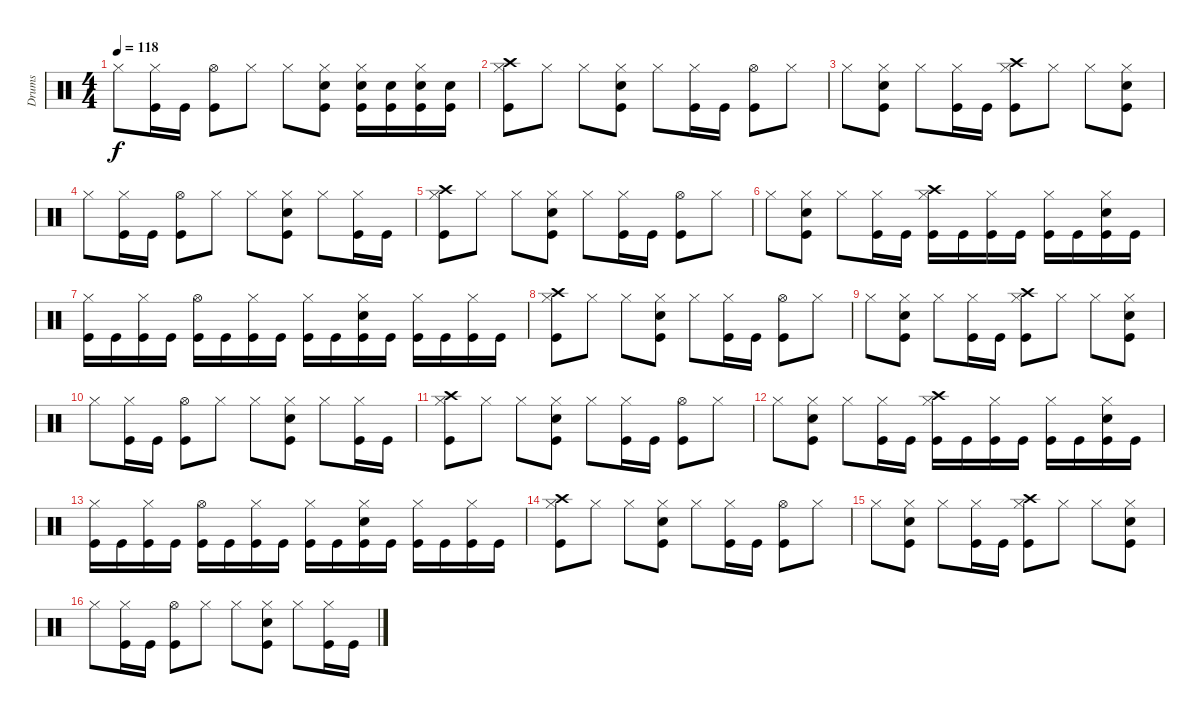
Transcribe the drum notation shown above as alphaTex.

\track ("Drums" "Drums") {instrument percussion}
\staff {score}
\articulation defaults
\ts (4 4)
\tempo 118
\clef neutral
\ks c "Hi-Hat (closed)".8{dy f}
("Kick (hit)" "Hi-Hat (closed)").16 "Kick (hit)".16 ("Kick (hit)" "Hi-Hat (open)").8 "Hi-Hat (closed)".8 "Hi-Hat (closed)".8 ("Kick (hit)" "Snare (hit) 2" "Hi-Hat (closed)").8 ("Kick (hit)" "Snare (hit) 2" "Hi-Hat (closed)").16 ("Kick (hit)" "Snare (hit) 2").16 ("Kick (hit)" "Snare (hit) 2" "Hi-Hat (closed)").16 ("Kick (hit)" "Snare (hit) 2").16 |
("Kick (hit)" "Hi-Hat (closed)" "Crash high (hit)").8 "Hi-Hat (closed)".8 "Hi-Hat (closed)".8 ("Kick (hit)" "Snare (hit) 2" "Hi-Hat (closed)").8 "Hi-Hat (closed)".8 ("Kick (hit)" "Hi-Hat (closed)").16 "Kick (hit)".16 ("Kick (hit)" "Hi-Hat (open)").8 "Hi-Hat (closed)".8 |
"Hi-Hat (closed)".8 ("Kick (hit)" "Snare (hit) 2" "Hi-Hat (closed)").8 "Hi-Hat (closed)".8 ("Kick (hit)" "Hi-Hat (closed)").16 "Kick (hit)".16 ("Kick (hit)" "Hi-Hat (closed)" "Crash high (hit)").8 "Hi-Hat (closed)".8 "Hi-Hat (closed)".8 ("Kick (hit)" "Snare (hit) 2" "Hi-Hat (closed)").8 |
"Hi-Hat (closed)".8 ("Kick (hit)" "Hi-Hat (closed)").16 "Kick (hit)".16 ("Kick (hit)" "Hi-Hat (open)").8 "Hi-Hat (closed)".8 "Hi-Hat (closed)".8 ("Kick (hit)" "Snare (hit) 2" "Hi-Hat (closed)").8 "Hi-Hat (closed)".8 ("Kick (hit)" "Hi-Hat (closed)").16 "Kick (hit)".16 |
("Kick (hit)" "Hi-Hat (closed)" "Crash high (hit)").8 "Hi-Hat (closed)".8 "Hi-Hat (closed)".8 ("Kick (hit)" "Snare (hit) 2" "Hi-Hat (closed)").8 "Hi-Hat (closed)".8 ("Kick (hit)" "Hi-Hat (closed)").16 "Kick (hit)".16 ("Kick (hit)" "Hi-Hat (open)").8 "Hi-Hat (closed)".8 |
"Hi-Hat (closed)".8 ("Kick (hit)" "Snare (hit) 2" "Hi-Hat (closed)").8 "Hi-Hat (closed)".8 ("Kick (hit)" "Hi-Hat (closed)").16 "Kick (hit)".16 ("Kick (hit)" "Hi-Hat (closed)" "Crash high (hit)").16 "Kick (hit)".16 ("Kick (hit)" "Hi-Hat (closed)").16 "Kick (hit)".16 ("Kick (hit)" "Hi-Hat (closed)").16 "Kick (hit)".16 ("Kick (hit)" "Snare (hit) 2" "Hi-Hat (closed)").16 "Kick (hit)".16 |
("Kick (hit)" "Hi-Hat (closed)").16 "Kick (hit)".16 ("Kick (hit)" "Hi-Hat (closed)").16 "Kick (hit)".16 ("Kick (hit)" "Hi-Hat (open)").16 "Kick (hit)".16 ("Kick (hit)" "Hi-Hat (closed)").16 "Kick (hit)".16 ("Kick (hit)" "Hi-Hat (closed)").16 "Kick (hit)".16 ("Kick (hit)" "Snare (hit) 2" "Hi-Hat (closed)").16 "Kick (hit)".16 ("Kick (hit)" "Hi-Hat (closed)").16 "Kick (hit)".16 ("Kick (hit)" "Hi-Hat (closed)").16 "Kick (hit)".16 |
("Kick (hit)" "Hi-Hat (closed)" "Crash high (hit)").8 "Hi-Hat (closed)".8 "Hi-Hat (closed)".8 ("Kick (hit)" "Snare (hit) 2" "Hi-Hat (closed)").8 "Hi-Hat (closed)".8 ("Kick (hit)" "Hi-Hat (closed)").16 "Kick (hit)".16 ("Kick (hit)" "Hi-Hat (open)").8 "Hi-Hat (closed)".8 |
"Hi-Hat (closed)".8 ("Kick (hit)" "Snare (hit) 2" "Hi-Hat (closed)").8 "Hi-Hat (closed)".8 ("Kick (hit)" "Hi-Hat (closed)").16 "Kick (hit)".16 ("Kick (hit)" "Hi-Hat (closed)" "Crash high (hit)").8 "Hi-Hat (closed)".8 "Hi-Hat (closed)".8 ("Kick (hit)" "Snare (hit) 2" "Hi-Hat (closed)").8 |
"Hi-Hat (closed)".8 ("Kick (hit)" "Hi-Hat (closed)").16 "Kick (hit)".16 ("Kick (hit)" "Hi-Hat (open)").8 "Hi-Hat (closed)".8 "Hi-Hat (closed)".8 ("Kick (hit)" "Snare (hit) 2" "Hi-Hat (closed)").8 "Hi-Hat (closed)".8 ("Kick (hit)" "Hi-Hat (closed)").16 "Kick (hit)".16 |
("Kick (hit)" "Hi-Hat (closed)" "Crash high (hit)").8 "Hi-Hat (closed)".8 "Hi-Hat (closed)".8 ("Kick (hit)" "Snare (hit) 2" "Hi-Hat (closed)").8 "Hi-Hat (closed)".8 ("Kick (hit)" "Hi-Hat (closed)").16 "Kick (hit)".16 ("Kick (hit)" "Hi-Hat (open)").8 "Hi-Hat (closed)".8 |
"Hi-Hat (closed)".8 ("Kick (hit)" "Snare (hit) 2" "Hi-Hat (closed)").8 "Hi-Hat (closed)".8 ("Kick (hit)" "Hi-Hat (closed)").16 "Kick (hit)".16 ("Kick (hit)" "Hi-Hat (closed)" "Crash high (hit)").16 "Kick (hit)".16 ("Kick (hit)" "Hi-Hat (closed)").16 "Kick (hit)".16 ("Kick (hit)" "Hi-Hat (closed)").16 "Kick (hit)".16 ("Kick (hit)" "Snare (hit) 2" "Hi-Hat (closed)").16 "Kick (hit)".16 |
("Kick (hit)" "Hi-Hat (closed)").16 "Kick (hit)".16 ("Kick (hit)" "Hi-Hat (closed)").16 "Kick (hit)".16 ("Kick (hit)" "Hi-Hat (open)").16 "Kick (hit)".16 ("Kick (hit)" "Hi-Hat (closed)").16 "Kick (hit)".16 ("Kick (hit)" "Hi-Hat (closed)").16 "Kick (hit)".16 ("Kick (hit)" "Snare (hit) 2" "Hi-Hat (closed)").16 "Kick (hit)".16 ("Kick (hit)" "Hi-Hat (closed)").16 "Kick (hit)".16 ("Kick (hit)" "Hi-Hat (closed)").16 "Kick (hit)".16 |
("Kick (hit)" "Hi-Hat (closed)" "Crash high (hit)").8 "Hi-Hat (closed)".8 "Hi-Hat (closed)".8 ("Kick (hit)" "Snare (hit) 2" "Hi-Hat (closed)").8 "Hi-Hat (closed)".8 ("Kick (hit)" "Hi-Hat (closed)").16 "Kick (hit)".16 ("Kick (hit)" "Hi-Hat (open)").8 "Hi-Hat (closed)".8 |
"Hi-Hat (closed)".8 ("Kick (hit)" "Snare (hit) 2" "Hi-Hat (closed)").8 "Hi-Hat (closed)".8 ("Kick (hit)" "Hi-Hat (closed)").16 "Kick (hit)".16 ("Kick (hit)" "Hi-Hat (closed)" "Crash high (hit)").8 "Hi-Hat (closed)".8 "Hi-Hat (closed)".8 ("Kick (hit)" "Snare (hit) 2" "Hi-Hat (closed)").8 |
"Hi-Hat (closed)".8 ("Kick (hit)" "Hi-Hat (closed)").16 "Kick (hit)".16 ("Kick (hit)" "Hi-Hat (open)").8 "Hi-Hat (closed)".8 "Hi-Hat (closed)".8 ("Kick (hit)" "Snare (hit) 2" "Hi-Hat (closed)").8 "Hi-Hat (closed)".8 ("Kick (hit)" "Hi-Hat (closed)").16 "Kick (hit)".16
